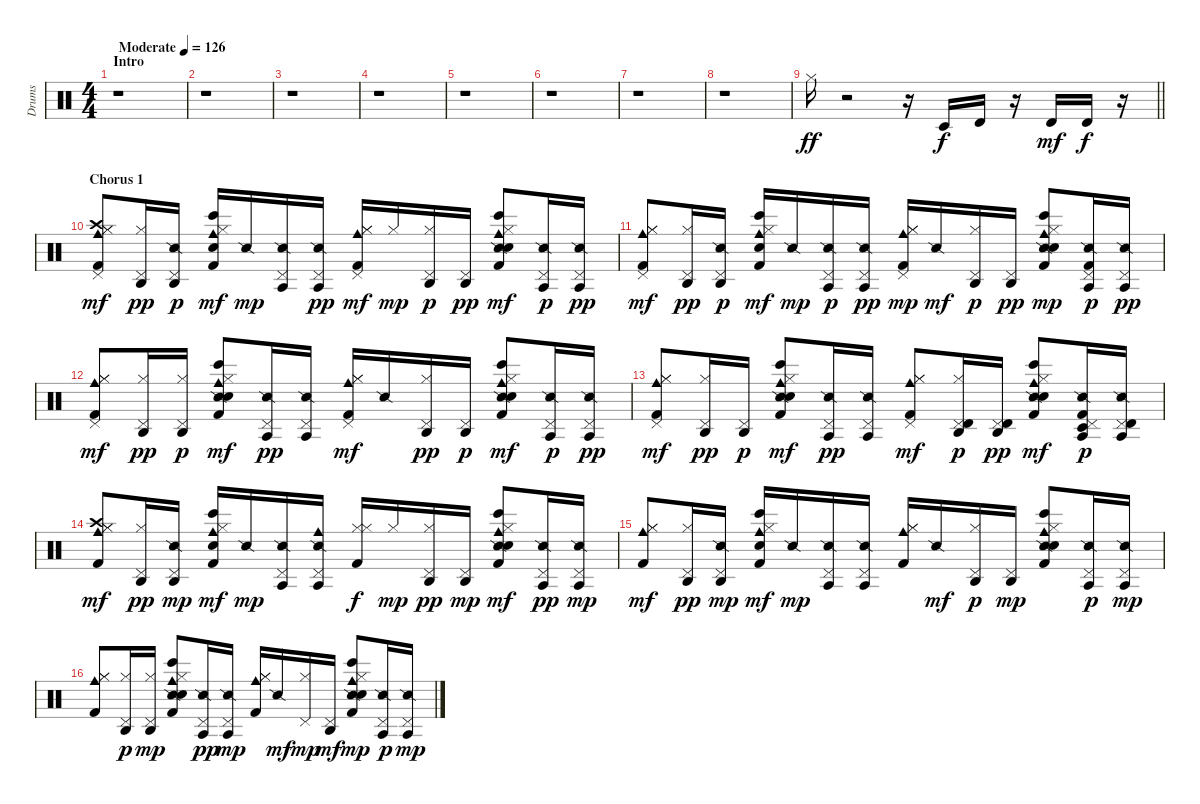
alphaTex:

\track ("Drums" "Drums") {instrument percussion}
\staff {score}
\articulation defaults
\ts (4 4)
\section ("" "Intro")
\tempo (126 "Moderate")
\clef neutral
\ks c
r.1{dy ff} |
r.1 |
r.1 |
r.1 |
r.1 |
r.1 |
r.1 |
r.1 |
\barLineRight lightlight "Hi-Hat (closed)".16
r.2 r.16 "Timbale low (hit)".16{dy f} "Timbale high (hit)".16 r.16 "Timbale high (hit)".16{dy mf} "Timbale high (hit)".16{dy f} r.16 |
\section ("" "Chorus 1")
("Hi-Hat (closed)" "Kick (hit) 2" "Hi-Hat (closed)" "Pedal Hi-Hat (hit)" "Crash high (hit)" "Cowbell medium (hit)").8{dy mf} ("Hi-Hat (closed)" "Pedal Hi-Hat (hit)" "Agogo high (hit)").16{dy pp} ("Snare (side stick) 2" "Pedal Hi-Hat (hit)" "Agogo high (hit)").16{dy p} ("Bongo High (hit)" "Kick (hit) 2" "Hand Clap (hit)" "Hi-Hat (closed)" "Cowbell medium (hit)").16{dy mf} "Snare (side stick) 2".16{dy mp} ("Snare (side stick) 2" "Pedal Hi-Hat (hit)" "Agogo tow (hit)").16 ("Snare (side stick) 2" "Pedal Hi-Hat (hit)" "Agogo tow (hit)").16{dy pp} ("Hi-Hat (closed)" "Kick (hit) 2" "Hi-Hat (closed)" "Pedal Hi-Hat (hit)" "Cowbell medium (hit)").16{dy mf} "Hi-Hat (closed)".16{dy mp} ("Hi-Hat (closed)" "Pedal Hi-Hat (hit)" "Agogo high (hit)").16{dy p} ("Pedal Hi-Hat (hit)" "Agogo high (hit)").16{dy pp} ("Bongo High (hit)" "Snare (side stick) 2" "Kick (hit) 2" "Hand Clap (hit)" "Hi-Hat (closed)" "Cowbell medium (hit)").8{dy mf} ("Snare (side stick) 2" "Pedal Hi-Hat (hit)" "Agogo tow (hit)").16{dy p} ("Snare (side stick) 2" "Pedal Hi-Hat (hit)" "Agogo tow (hit)").16{dy pp} |
("Hi-Hat (closed)" "Kick (hit) 2" "Hi-Hat (closed)" "Pedal Hi-Hat (hit)" "Cowbell medium (hit)").8{dy mf} ("Hi-Hat (closed)" "Pedal Hi-Hat (hit)" "Agogo high (hit)").16{dy pp} ("Snare (side stick) 2" "Pedal Hi-Hat (hit)" "Agogo high (hit)").16{dy p} ("Bongo High (hit)" "Kick (hit) 2" "Hand Clap (hit)" "Hi-Hat (closed)" "Cowbell medium (hit)").16{dy mf} "Snare (side stick) 2".16{dy mp} ("Snare (side stick) 2" "Pedal Hi-Hat (hit)" "Agogo tow (hit)").16{dy p} ("Snare (side stick) 2" "Pedal Hi-Hat (hit)" "Agogo tow (hit)").16{dy pp} ("Hi-Hat (closed)" "Kick (hit) 2" "Hi-Hat (closed)" "Pedal Hi-Hat (hit)" "Cowbell medium (hit)").16{dy mp} "Snare (side stick) 2".16{dy mf} ("Hi-Hat (closed)" "Pedal Hi-Hat (hit)" "Agogo high (hit)").16{dy p} ("Pedal Hi-Hat (hit)" "Agogo high (hit)").16{dy pp} ("Bongo High (hit)" "Snare (side stick) 2" "Kick (hit) 2" "Hand Clap (hit)" "Hi-Hat (closed)" "Cowbell medium (hit)").8{dy mp} ("Snare (side stick) 2" "Kick (hit) 2" "Pedal Hi-Hat (hit)" "Agogo tow (hit)").16{dy p} ("Snare (side stick) 2" "Pedal Hi-Hat (hit)" "Agogo tow (hit)").16{dy pp} |
("Hi-Hat (closed)" "Kick (hit) 2" "Hi-Hat (closed)" "Pedal Hi-Hat (hit)" "Cowbell medium (hit)").8{dy mf} ("Hi-Hat (closed)" "Pedal Hi-Hat (hit)" "Agogo high (hit)").16{dy pp} ("Hi-Hat (closed)" "Pedal Hi-Hat (hit)" "Agogo high (hit)").16{dy p} ("Bongo High (hit)" "Snare (side stick) 2" "Kick (hit) 2" "Hand Clap (hit)" "Hi-Hat (closed)" "Cowbell medium (hit)").8{dy mf} ("Snare (side stick) 2" "Pedal Hi-Hat (hit)" "Agogo tow (hit)").16{dy pp} ("Snare (side stick) 2" "Pedal Hi-Hat (hit)" "Agogo tow (hit)").16 ("Hi-Hat (closed)" "Kick (hit) 2" "Hi-Hat (closed)" "Pedal Hi-Hat (hit)" "Cowbell medium (hit)").16{dy mf} "Snare (side stick) 2".16 ("Hi-Hat (closed)" "Pedal Hi-Hat (hit)" "Agogo high (hit)").16{dy pp} ("Pedal Hi-Hat (hit)" "Agogo high (hit)").16{dy p} ("Bongo High (hit)" "Snare (side stick) 2" "Kick (hit) 2" "Hand Clap (hit)" "Hi-Hat (closed)" "Cowbell medium (hit)").8{dy mf} ("Snare (side stick) 2" "Pedal Hi-Hat (hit)" "Agogo tow (hit)").16{dy p} ("Snare (side stick) 2" "Pedal Hi-Hat (hit)" "Agogo tow (hit)").16{dy pp} |
("Hi-Hat (closed)" "Kick (hit) 2" "Hi-Hat (closed)" "Pedal Hi-Hat (hit)" "Cowbell medium (hit)").8{dy mf} ("Hi-Hat (closed)" "Pedal Hi-Hat (hit)" "Agogo high (hit)").16{dy pp} ("Pedal Hi-Hat (hit)" "Agogo high (hit)").16{dy p} ("Bongo High (hit)" "Snare (side stick) 2" "Kick (hit) 2" "Hand Clap (hit)" "Hi-Hat (closed)" "Cowbell medium (hit)").8{dy mf} ("Snare (side stick) 2" "Pedal Hi-Hat (hit)" "Agogo tow (hit)").16{dy pp} ("Snare (side stick) 2" "Pedal Hi-Hat (hit)" "Agogo tow (hit)").16 ("Hi-Hat (closed)" "Kick (hit) 2" "Hi-Hat (closed)" "Pedal Hi-Hat (hit)" "Cowbell medium (hit)").8{dy mf} ("Hi-Hat (closed)" "Pedal Hi-Hat (hit)" "Timbale high (hit)" "Agogo high (hit)").16{dy p} ("Pedal Hi-Hat (hit)" "Timbale high (hit)" "Agogo high (hit)").16{dy pp} ("Bongo High (hit)" "Snare (side stick) 2" "Kick (hit) 2" "Hand Clap (hit)" "Hi-Hat (closed)" "Cowbell medium (hit)").8{dy mf} ("Snare (side stick) 2" "Kick (hit) 2" "Pedal Hi-Hat (hit)" "Timbale low (hit)" "Agogo tow (hit)").16{dy p} ("Snare (side stick) 2" "Pedal Hi-Hat (hit)" "Timbale high (hit)" "Agogo tow (hit)").16 |
("Hi-Hat (closed)" "Kick (hit) 2" "Hi-Hat (closed)" "Crash high (hit)" "Cowbell medium (hit)").8{dy mf} ("Hi-Hat (closed)" "Pedal Hi-Hat (hit)" "Agogo high (hit)").16{dy pp} ("Snare (side stick) 2" "Agogo high (hit)" "Pedal Hi-Hat (hit)").16{dy mp} ("Bongo High (hit)" "Kick (hit) 2" "Hand Clap (hit)" "Hi-Hat (closed)" "Cowbell medium (hit)").16{dy mf} "Snare (side stick) 2".16{dy mp} ("Snare (side stick) 2" "Pedal Hi-Hat (hit)" "Agogo tow (hit)").16 ("Snare (side stick) 2" "Cowbell medium (hit)" "Agogo tow (hit)" "Pedal Hi-Hat (hit)").16 ("Hi-Hat (closed)" "Kick (hit) 2" "Hi-Hat (closed)").16{dy f} "Hi-Hat (closed)".16{dy mp} ("Hi-Hat (closed)" "Pedal Hi-Hat (hit)" "Agogo high (hit)").16{dy pp} ("Agogo high (hit)" "Pedal Hi-Hat (hit)").16{dy mp} ("Bongo High (hit)" "Snare (side stick) 2" "Kick (hit) 2" "Hand Clap (hit)" "Hi-Hat (closed)" "Cowbell medium (hit)").8{dy mf} ("Snare (side stick) 2" "Pedal Hi-Hat (hit)" "Agogo tow (hit)").16{dy pp} ("Snare (side stick) 2" "Agogo tow (hit)" "Pedal Hi-Hat (hit)").16{dy mp} |
("Hi-Hat (closed)" "Kick (hit) 2" "Hi-Hat (closed)" "Cowbell medium (hit)").8{dy mf} ("Hi-Hat (closed)" "Pedal Hi-Hat (hit)" "Agogo high (hit)").16{dy pp} ("Snare (side stick) 2" "Agogo high (hit)" "Pedal Hi-Hat (hit)").16{dy mp} ("Bongo High (hit)" "Kick (hit) 2" "Hand Clap (hit)" "Hi-Hat (closed)" "Cowbell medium (hit)").16{dy mf} "Snare (side stick) 2".16{dy mp} ("Snare (side stick) 2" "Pedal Hi-Hat (hit)" "Agogo tow (hit)").16 ("Snare (side stick) 2" "Agogo tow (hit)" "Pedal Hi-Hat (hit)").16 ("Hi-Hat (closed)" "Kick (hit) 2" "Hi-Hat (closed)" "Cowbell medium (hit)").16 "Snare (side stick) 2".16{dy mf} ("Hi-Hat (closed)" "Pedal Hi-Hat (hit)" "Agogo high (hit)").16{dy p} ("Agogo high (hit)" "Pedal Hi-Hat (hit)").16{dy mp} ("Bongo High (hit)" "Snare (side stick) 2" "Kick (hit) 2" "Hand Clap (hit)" "Hi-Hat (closed)" "Cowbell medium (hit)").8 ("Snare (side stick) 2" "Pedal Hi-Hat (hit)" "Agogo tow (hit)").16{dy p} ("Snare (side stick) 2" "Agogo tow (hit)" "Pedal Hi-Hat (hit)").16{dy mp} |
("Hi-Hat (closed)" "Kick (hit) 2" "Hi-Hat (closed)" "Cowbell medium (hit)").8 ("Hi-Hat (closed)" "Pedal Hi-Hat (hit)" "Agogo high (hit)").16{dy p} ("Hi-Hat (closed)" "Agogo high (hit)" "Pedal Hi-Hat (hit)").16{dy mp} ("Bongo High (hit)" "Snare (side stick) 2" "Kick (hit) 2" "Hand Clap (hit)" "Hi-Hat (closed)" "Cowbell medium (hit)").8 ("Snare (side stick) 2" "Pedal Hi-Hat (hit)" "Agogo tow (hit)").16{dy pp} ("Snare (side stick) 2" "Agogo tow (hit)" "Pedal Hi-Hat (hit)").16{dy mp} ("Hi-Hat (closed)" "Kick (hit) 2" "Hi-Hat (closed)" "Cowbell medium (hit)").16 "Snare (side stick) 2".16{dy mf} ("Hi-Hat (closed)" "Pedal Hi-Hat (hit)").16{dy mp} ("Agogo high (hit)" "Pedal Hi-Hat (hit)").16{dy mf} ("Bongo High (hit)" "Snare (side stick) 2" "Kick (hit) 2" "Hand Clap (hit)" "Hi-Hat (closed)" "Cowbell medium (hit)").8{dy mp} ("Snare (side stick) 2" "Pedal Hi-Hat (hit)" "Agogo tow (hit)").16{dy p} ("Snare (side stick) 2" "Agogo tow (hit)" "Pedal Hi-Hat (hit)").16{dy mp}
